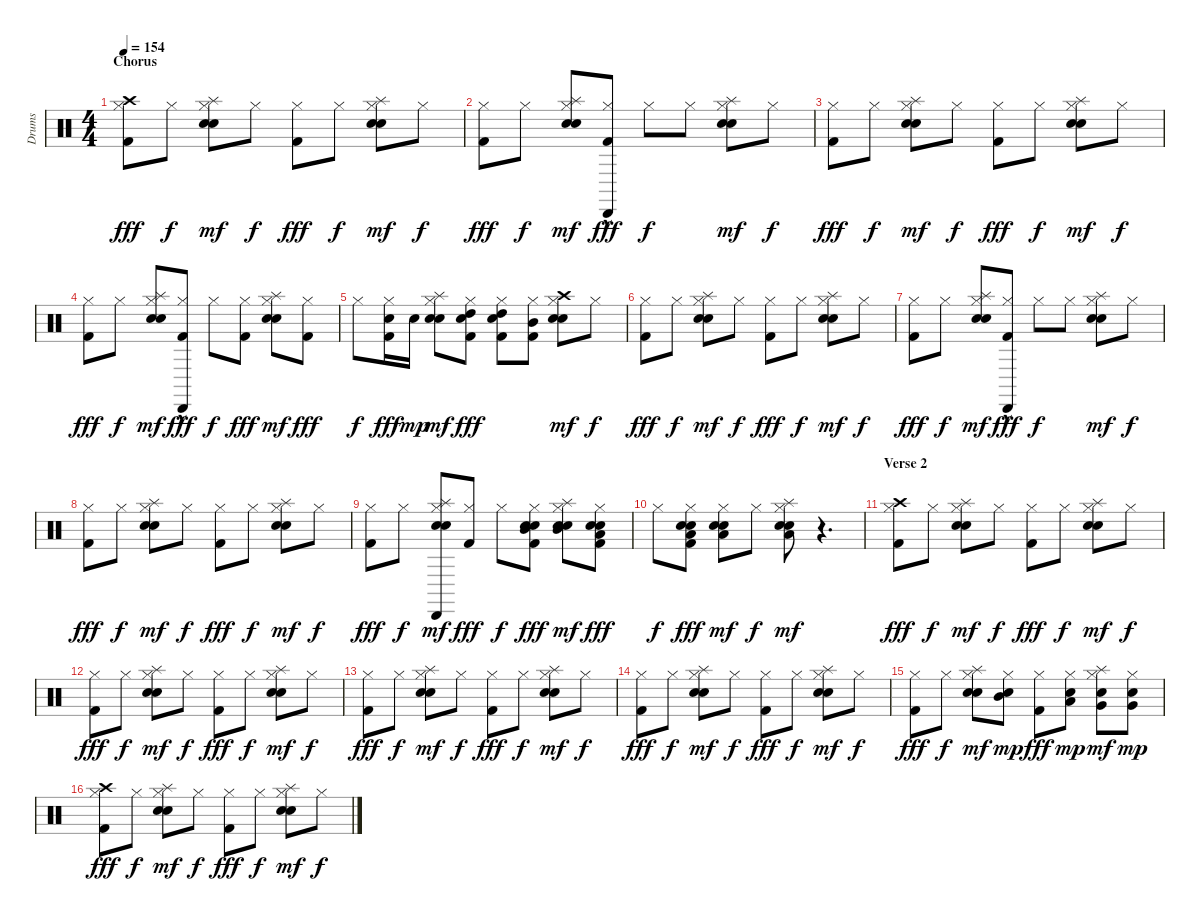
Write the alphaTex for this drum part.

\track ("Drums" "Drums") {instrument percussion}
\staff {score}
\articulation defaults
\ts (4 4)
\section ("" "Chorus")
\tempo 154
\clef neutral
\ks c
("Crash high (hit)" "Hi-Hat (closed)" "Kick (hit) 2").8{dy fff} "Hi-Hat (closed)".8{dy f} ("Splash (hit)" "Hi-Hat (closed)" "Electric Snare (hit)" "Snare (hit) 2").8{dy mf} "Hi-Hat (closed)".8{dy f} ("Hi-Hat (closed)" "Kick (hit) 2").8{dy fff} "Hi-Hat (closed)".8{dy f} ("Splash (hit)" "Hi-Hat (closed)" "Electric Snare (hit)" "Snare (hit) 2").8{dy mf} "Hi-Hat (closed)".8{dy f} |
("Hi-Hat (closed)" "Kick (hit) 2").8{dy fff} "Hi-Hat (closed)".8{dy f} ("Splash (hit)" "Hi-Hat (closed)" "Electric Snare (hit)" "Snare (hit) 2").8{dy mf} ("Hi-Hat (closed)" "Cabasa (hit)"{hac} "Kick (hit) 2"{hac}).8{dy fff} "Hi-Hat (closed)".8{dy f} "Hi-Hat (closed)".8 ("Splash (hit)" "Hi-Hat (closed)" "Electric Snare (hit)" "Snare (hit) 2").8{dy mf} "Hi-Hat (closed)".8{dy f} |
("Hi-Hat (closed)" "Kick (hit) 2").8{dy fff} "Hi-Hat (closed)".8{dy f} ("Splash (hit)" "Hi-Hat (closed)" "Electric Snare (hit)" "Snare (hit) 2").8{dy mf} "Hi-Hat (closed)".8{dy f} ("Hi-Hat (closed)" "Kick (hit) 2").8{dy fff} "Hi-Hat (closed)".8{dy f} ("Splash (hit)" "Hi-Hat (closed)" "Electric Snare (hit)" "Snare (hit) 2").8{dy mf} "Hi-Hat (closed)".8{dy f} |
("Hi-Hat (closed)" "Kick (hit) 2").8{dy fff} "Hi-Hat (closed)".8{dy f} ("Splash (hit)" "Hi-Hat (closed)" "Electric Snare (hit)" "Snare (hit) 2").8{dy mf} ("Hi-Hat (closed)" "Cabasa (hit)"{hac} "Kick (hit) 2").8{dy fff} "Hi-Hat (closed)".8{dy f} ("Hi-Hat (closed)" "Kick (hit) 2").8{dy fff} ("Splash (hit)" "Hi-Hat (closed)" "Electric Snare (hit)" "Snare (hit) 2").8{dy mf} ("Hi-Hat (closed)" "Kick (hit) 2").8{dy fff} |
"Hi-Hat (closed)".8{dy f} ("Hi-Hat (closed)" "Snare (hit) 2" "Kick (hit) 2").16{dy fff} "Snare (hit) 2".16{dy mp} ("Splash (hit)" "Hi-Hat (closed)" "Electric Snare (hit)" "Snare (hit) 2").8{dy mf} ("Hi-Hat (closed)" "High Tom (hit)" "Snare (hit) 2" "Kick (hit) 2").8{dy fff} ("Hi-Hat (closed)" "High Tom (hit)" "Snare (hit) 2" "Kick (hit) 2").8 ("Hi-Hat (closed)" "Mid Tom (hit)" "Kick (hit) 2").8 ("Crash high (hit)" "Hi-Hat (closed)" "Electric Snare (hit)" "Snare (hit) 2").8{dy mf} "Hi-Hat (closed)".8{dy f} |
("Hi-Hat (closed)" "Kick (hit) 2").8{dy fff} "Hi-Hat (closed)".8{dy f} ("Splash (hit)" "Hi-Hat (closed)" "Electric Snare (hit)" "Snare (hit) 2").8{dy mf} "Hi-Hat (closed)".8{dy f} ("Hi-Hat (closed)" "Kick (hit) 2").8{dy fff} "Hi-Hat (closed)".8{dy f} ("Splash (hit)" "Hi-Hat (closed)" "Electric Snare (hit)" "Snare (hit) 2").8{dy mf} "Hi-Hat (closed)".8{dy f} |
("Hi-Hat (closed)" "Kick (hit) 2").8{dy fff} "Hi-Hat (closed)".8{dy f} ("Splash (hit)" "Hi-Hat (closed)" "Electric Snare (hit)" "Snare (hit) 2").8{dy mf} ("Hi-Hat (closed)" "Cabasa (hit)"{hac} "Kick (hit) 2"{hac}).8{dy fff} "Hi-Hat (closed)".8{dy f} "Hi-Hat (closed)".8 ("Splash (hit)" "Hi-Hat (closed)" "Electric Snare (hit)" "Snare (hit) 2").8{dy mf} "Hi-Hat (closed)".8{dy f} |
("Hi-Hat (closed)" "Kick (hit) 2").8{dy fff} "Hi-Hat (closed)".8{dy f} ("Splash (hit)" "Hi-Hat (closed)" "Electric Snare (hit)" "Snare (hit) 2").8{dy mf} "Hi-Hat (closed)".8{dy f} ("Hi-Hat (closed)" "Kick (hit) 2").8{dy fff} "Hi-Hat (closed)".8{dy f} ("Splash (hit)" "Hi-Hat (closed)" "Electric Snare (hit)" "Snare (hit) 2").8{dy mf} "Hi-Hat (closed)".8{dy f} |
("Hi-Hat (closed)" "Kick (hit) 2").8{dy fff} "Hi-Hat (closed)".8{dy f} ("Splash (hit)" "Hi-Hat (closed)" "Cabasa (hit)" "Electric Snare (hit)" "Snare (hit) 2").8{dy mf} ("Hi-Hat (closed)" "Kick (hit) 2").8{dy fff} "Hi-Hat (closed)".8{dy f} ("Hi-Hat (closed)" "Hand Clap (hit)" "Mid Tom (hit)" "Snare (hit) 2" "Kick (hit) 2").8{dy fff} ("Splash (hit)" "Hi-Hat (closed)" "Electric Snare (hit)" "Mid Tom (hit)" "Snare (hit) 2").8{dy mf} ("Hi-Hat (closed)" "Hand Clap (hit)" "Low Tom (hit)" "Snare (hit) 2" "Kick (hit) 2").8{dy fff} |
"Hi-Hat (closed)".8{dy f} ("Hi-Hat (closed)" "Hand Clap (hit)" "Low Tom (hit)" "Snare (hit) 2" "Kick (hit) 2").8{dy fff} ("Hi-Hat (closed)" "Hand Clap (hit)" "Low Tom (hit)" "Snare (hit) 2").8{dy mf} "Hi-Hat (closed)".8{dy f} ("Splash (hit)" "Hi-Hat (closed)" "Hand Clap (hit)" "Low Tom (hit)" "Snare (hit) 2").8{dy mf} r.4{d} |
\section ("" "Verse 2")
("Crash high (hit)" "Hi-Hat (closed)" "Kick (hit) 2").8{dy fff} "Hi-Hat (closed)".8{dy f} ("Splash (hit)" "Hi-Hat (closed)" "Electric Snare (hit)" "Snare (hit) 2").8{dy mf} "Hi-Hat (closed)".8{dy f} ("Hi-Hat (closed)" "Kick (hit) 2").8{dy fff} "Hi-Hat (closed)".8{dy f} ("Splash (hit)" "Hi-Hat (closed)" "Electric Snare (hit)" "Snare (hit) 2").8{dy mf} "Hi-Hat (closed)".8{dy f} |
("Hi-Hat (closed)" "Kick (hit) 2").8{dy fff} "Hi-Hat (closed)".8{dy f} ("Splash (hit)" "Hi-Hat (closed)" "Electric Snare (hit)" "Snare (hit) 2").8{dy mf} "Hi-Hat (closed)".8{dy f} ("Hi-Hat (closed)" "Kick (hit) 2").8{dy fff} "Hi-Hat (closed)".8{dy f} ("Splash (hit)" "Hi-Hat (closed)" "Electric Snare (hit)" "Snare (hit) 2").8{dy mf} "Hi-Hat (closed)".8{dy f} |
("Hi-Hat (closed)" "Kick (hit) 2").8{dy fff} "Hi-Hat (closed)".8{dy f} ("Splash (hit)" "Hi-Hat (closed)" "Electric Snare (hit)" "Snare (hit) 2").8{dy mf} "Hi-Hat (closed)".8{dy f} ("Hi-Hat (closed)" "Kick (hit) 2").8{dy fff} "Hi-Hat (closed)".8{dy f} ("Splash (hit)" "Hi-Hat (closed)" "Electric Snare (hit)" "Snare (hit) 2").8{dy mf} "Hi-Hat (closed)".8{dy f} |
("Hi-Hat (closed)" "Kick (hit) 2").8{dy fff} "Hi-Hat (closed)".8{dy f} ("Splash (hit)" "Hi-Hat (closed)" "Electric Snare (hit)" "Snare (hit) 2").8{dy mf} "Hi-Hat (closed)".8{dy f} ("Hi-Hat (closed)" "Kick (hit) 2").8{dy fff} "Hi-Hat (closed)".8{dy f} ("Splash (hit)" "Hi-Hat (closed)" "Electric Snare (hit)" "Snare (hit) 2").8{dy mf} "Hi-Hat (closed)".8{dy f} |
("Hi-Hat (closed)" "Kick (hit) 2").8{dy fff} "Hi-Hat (closed)".8{dy f} ("Splash (hit)" "Hi-Hat (closed)" "Electric Snare (hit)" "Snare (hit) 2").8{dy mf} ("Hi-Hat (closed)" "Mid Tom (hit)" "Snare (hit) 2").8{dy mp} ("Hi-Hat (closed)" "Kick (hit) 2").8{dy fff} ("Hi-Hat (closed)" "Low Tom (hit)" "Snare (hit) 2").8{dy mp} ("Splash (hit)" "Hi-Hat (closed)" "Very Low Tom (hit)" "Snare (hit) 2").8{dy mf} ("Hi-Hat (closed)" "Very Low Tom (hit)" "Snare (hit) 2").8{dy mp} |
("Crash high (hit)" "Hi-Hat (closed)" "Kick (hit) 2").8{dy fff} "Hi-Hat (closed)".8{dy f} ("Splash (hit)" "Hi-Hat (closed)" "Electric Snare (hit)" "Snare (hit) 2").8{dy mf} "Hi-Hat (closed)".8{dy f} ("Hi-Hat (closed)" "Kick (hit) 2").8{dy fff} "Hi-Hat (closed)".8{dy f} ("Splash (hit)" "Hi-Hat (closed)" "Electric Snare (hit)" "Snare (hit) 2").8{dy mf} "Hi-Hat (closed)".8{dy f}
